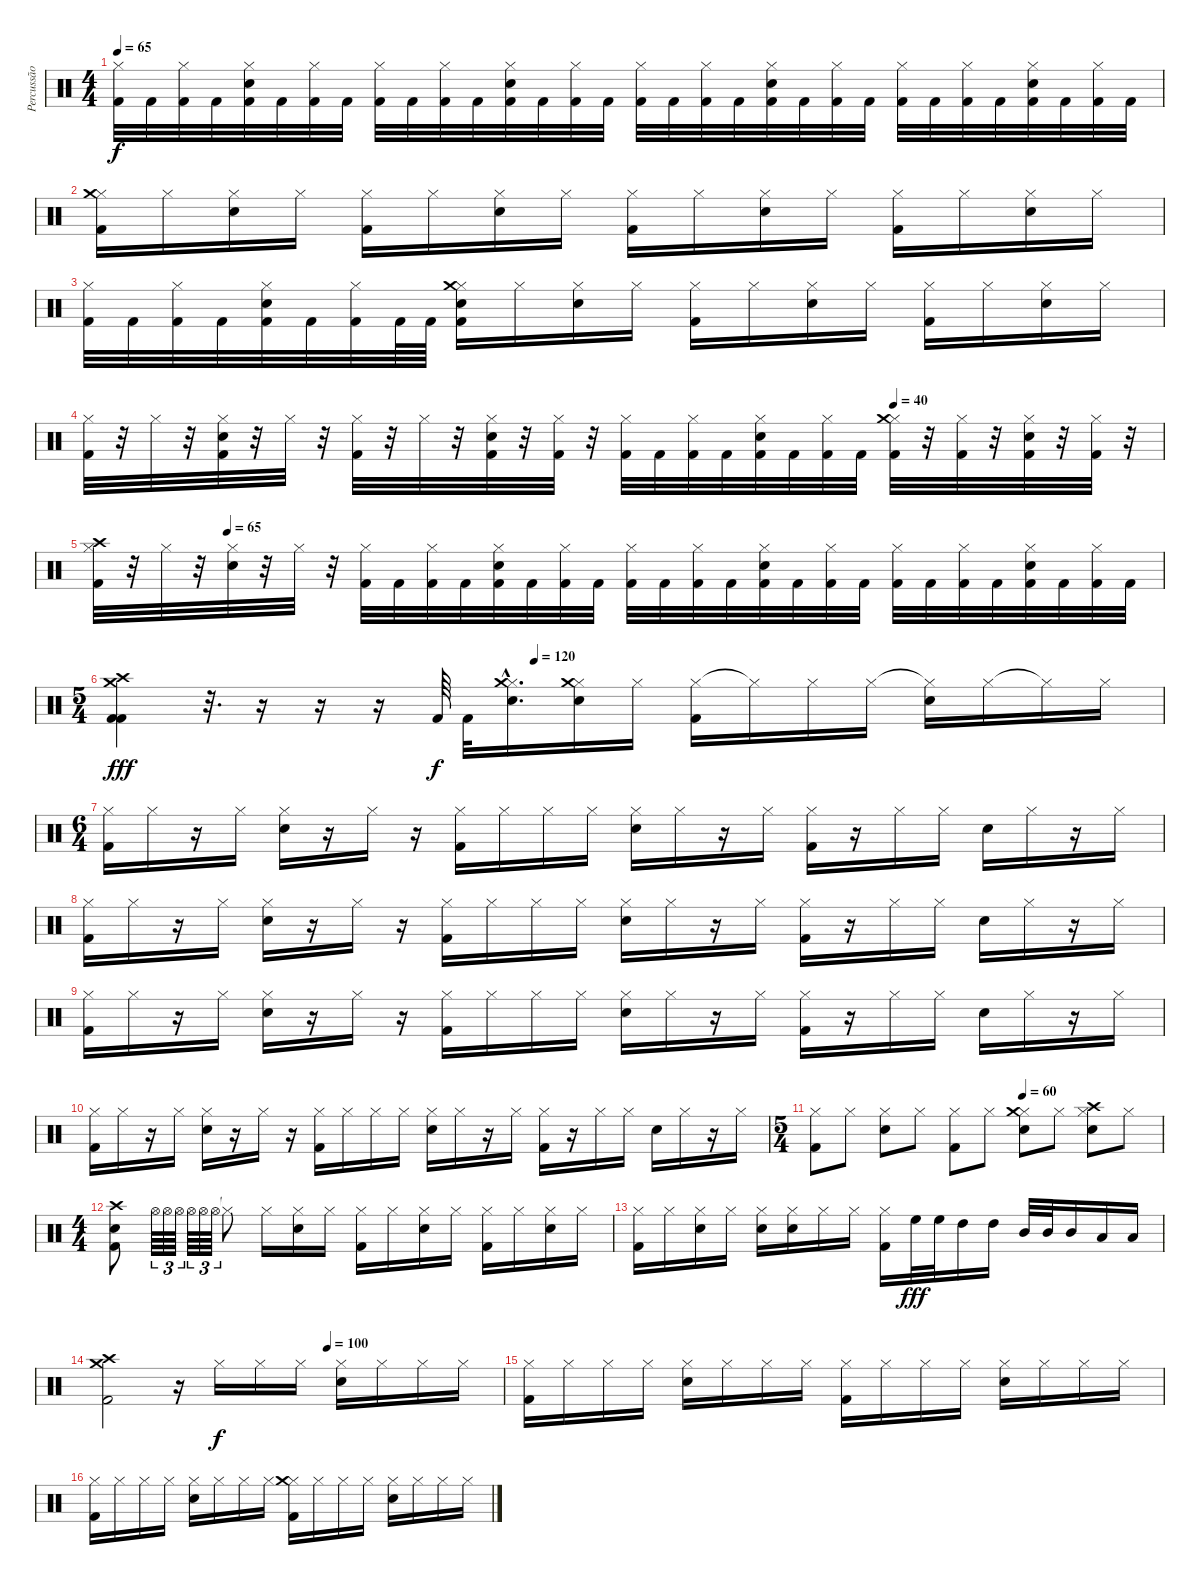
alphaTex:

\track ("Percussão" "Percussão") {instrument percussion}
\staff {score}
\articulation defaults
\ts (4 4)
\tempo 65
\clef neutral
\ks c
("Hi-Hat (closed)" "Kick (hit) 2").32{dy f} "Kick (hit) 2".32 ("Hi-Hat (closed)" "Kick (hit) 2").32 "Kick (hit) 2".32 ("Hi-Hat (closed)" "Kick (hit) 2" "Snare (hit) 2").32 "Kick (hit) 2".32 ("Hi-Hat (closed)" "Kick (hit) 2").32 "Kick (hit) 2".32 ("Hi-Hat (closed)" "Kick (hit) 2").32 "Kick (hit) 2".32 ("Hi-Hat (closed)" "Kick (hit) 2").32 "Kick (hit) 2".32 ("Hi-Hat (closed)" "Kick (hit) 2" "Snare (hit) 2").32 "Kick (hit) 2".32 ("Hi-Hat (closed)" "Kick (hit) 2").32 "Kick (hit) 2".32 ("Hi-Hat (closed)" "Kick (hit) 2").32 "Kick (hit) 2".32 ("Hi-Hat (closed)" "Kick (hit) 2").32 "Kick (hit) 2".32 ("Hi-Hat (closed)" "Kick (hit) 2" "Snare (hit) 2").32 "Kick (hit) 2".32 ("Hi-Hat (closed)" "Kick (hit) 2").32 "Kick (hit) 2".32 ("Hi-Hat (closed)" "Kick (hit) 2").32 "Kick (hit) 2".32 ("Hi-Hat (closed)" "Kick (hit) 2").32 "Kick (hit) 2".32 ("Hi-Hat (closed)" "Kick (hit) 2" "Snare (hit) 2").32 "Kick (hit) 2".32 ("Hi-Hat (closed)" "Kick (hit) 2").32 "Kick (hit) 2".32 |
("Hi-Hat (closed)" "Kick (hit) 2" "Crash medium (hit)").16 "Hi-Hat (closed)".16 ("Hi-Hat (closed)" "Snare (hit) 2").16 "Hi-Hat (closed)".16 ("Hi-Hat (closed)" "Kick (hit) 2").16 "Hi-Hat (closed)".16 ("Hi-Hat (closed)" "Snare (hit) 2").16 "Hi-Hat (closed)".16 ("Hi-Hat (closed)" "Kick (hit) 2").16 "Hi-Hat (closed)".16 ("Hi-Hat (closed)" "Snare (hit) 2").16 "Hi-Hat (closed)".16 ("Hi-Hat (closed)" "Kick (hit) 2").16 "Hi-Hat (closed)".16 ("Hi-Hat (closed)" "Snare (hit) 2").16 "Hi-Hat (closed)".16 |
("Hi-Hat (closed)" "Kick (hit) 2").32 "Kick (hit) 2".32 ("Hi-Hat (closed)" "Kick (hit) 2").32 "Kick (hit) 2".32 ("Hi-Hat (closed)" "Kick (hit) 2" "Snare (hit) 2").32 "Kick (hit) 2".32 ("Hi-Hat (closed)" "Kick (hit) 2").32 "Kick (hit) 2".64 "Kick (hit) 2".64 ("Hi-Hat (closed)" "Kick (hit) 2" "Crash medium (hit)" "Snare (hit) 2").16 "Hi-Hat (closed)".16 ("Hi-Hat (closed)" "Snare (hit) 2").16 "Hi-Hat (closed)".16 ("Hi-Hat (closed)" "Kick (hit) 2").16 "Hi-Hat (closed)".16 ("Hi-Hat (closed)" "Snare (hit) 2").16 "Hi-Hat (closed)".16 ("Hi-Hat (closed)" "Kick (hit) 2").16 "Hi-Hat (closed)".16 ("Hi-Hat (closed)" "Snare (hit) 2").16 "Hi-Hat (closed)".16 |
\tempo (40 0.75)
("Hi-Hat (closed)" "Kick (hit) 2").32 r.32 "Hi-Hat (closed)".32 r.32 ("Hi-Hat (closed)" "Kick (hit) 2" "Snare (hit) 2").32 r.32 "Hi-Hat (closed)".32 r.32 ("Hi-Hat (closed)" "Kick (hit) 2").32 r.32 "Hi-Hat (closed)".32 r.32 ("Hi-Hat (closed)" "Kick (hit) 2" "Snare (hit) 2").32 r.32 ("Hi-Hat (closed)" "Kick (hit) 2").32 r.32 ("Hi-Hat (closed)" "Kick (hit) 2").32 "Kick (hit) 2".32 ("Hi-Hat (closed)" "Kick (hit) 2").32 "Kick (hit) 2".32 ("Hi-Hat (closed)" "Kick (hit) 2" "Snare (hit) 2").32 "Kick (hit) 2".32 ("Hi-Hat (closed)" "Kick (hit) 2").32 "Kick (hit) 2".32 ("Hi-Hat (closed)" "Kick (hit) 2" "Crash medium (hit)").32 r.32 ("Hi-Hat (closed)" "Kick (hit) 2").32 r.32 ("Hi-Hat (closed)" "Kick (hit) 2" "Snare (hit) 2").32 r.32 ("Hi-Hat (closed)" "Kick (hit) 2").32 r.32 |
\tempo (65 0.125)
("Hi-Hat (closed)" "Kick (hit) 2" "Crash high (hit)").32 r.32 "Hi-Hat (closed)".32 r.32 ("Hi-Hat (closed)" "Snare (hit) 2").32 r.32 "Hi-Hat (closed)".32 r.32 ("Hi-Hat (closed)" "Kick (hit) 2").32 "Kick (hit) 2".32 ("Hi-Hat (closed)" "Kick (hit) 2").32 "Kick (hit) 2".32 ("Hi-Hat (closed)" "Kick (hit) 2" "Snare (hit) 2").32 "Kick (hit) 2".32 ("Hi-Hat (closed)" "Kick (hit) 2").32 "Kick (hit) 2".32 ("Hi-Hat (closed)" "Kick (hit) 2").32 "Kick (hit) 2".32 ("Hi-Hat (closed)" "Kick (hit) 2").32 "Kick (hit) 2".32 ("Hi-Hat (closed)" "Kick (hit) 2" "Snare (hit) 2").32 "Kick (hit) 2".32 ("Hi-Hat (closed)" "Kick (hit) 2").32 "Kick (hit) 2".32 ("Hi-Hat (closed)" "Kick (hit) 2").32 "Kick (hit) 2".32 ("Hi-Hat (closed)" "Kick (hit) 2").32 "Kick (hit) 2".32 ("Hi-Hat (closed)" "Kick (hit) 2" "Snare (hit) 2").32 "Kick (hit) 2".32 ("Hi-Hat (closed)" "Kick (hit) 2").32 "Kick (hit) 2".32 |
\ts (5 4)
\tempo (120 0.4)
("Crash high (hit)" "Crash medium (hit)" "Kick (hit) 2" "Kick (hit) 2").4{dy fff} r.32{d} r.16 r.16 r.16 "Kick (hit) 2".64{dy f} "Kick (hit) 2".32 ("Hi-Hat (closed)"{hac} "Snare (hit) 2"{hac} "Crash medium (hit)"{hac}).16{d} ("Hi-Hat (closed)" "Snare (hit) 2" "Crash medium (hit)").16 "Hi-Hat (closed)".16 ("Hi-Hat (closed)" "Kick (hit) 2").16 "Hi-Hat (closed)"{t}.16 "Hi-Hat (closed)".16 "Hi-Hat (closed)".16 ("Hi-Hat (closed)"{t} "Snare (hit) 2").16 "Hi-Hat (closed)".16 "Hi-Hat (closed)"{t}.16 "Hi-Hat (closed)".16 |
\ts (6 4)
("Hi-Hat (closed)" "Kick (hit) 2").16 "Hi-Hat (closed)".16 r.16 "Hi-Hat (closed)".16 ("Hi-Hat (closed)" "Snare (hit) 2").16 r.16 "Hi-Hat (closed)".16 r.16 ("Hi-Hat (closed)" "Kick (hit) 2").16 "Hi-Hat (closed)".16 "Hi-Hat (closed)".16 "Hi-Hat (closed)".16 ("Hi-Hat (closed)" "Snare (hit) 2").16 "Hi-Hat (closed)".16 r.16 "Hi-Hat (closed)".16 ("Hi-Hat (closed)" "Kick (hit) 2").16 r.16 "Hi-Hat (closed)".16 "Hi-Hat (closed)".16 "Snare (hit) 2".16 "Hi-Hat (closed)".16 r.16 "Hi-Hat (closed)".16 |
("Hi-Hat (closed)" "Kick (hit) 2").16 "Hi-Hat (closed)".16 r.16 "Hi-Hat (closed)".16 ("Hi-Hat (closed)" "Snare (hit) 2").16 r.16 "Hi-Hat (closed)".16 r.16 ("Hi-Hat (closed)" "Kick (hit) 2").16 "Hi-Hat (closed)".16 "Hi-Hat (closed)".16 "Hi-Hat (closed)".16 ("Hi-Hat (closed)" "Snare (hit) 2").16 "Hi-Hat (closed)".16 r.16 "Hi-Hat (closed)".16 ("Hi-Hat (closed)" "Kick (hit) 2").16 r.16 "Hi-Hat (closed)".16 "Hi-Hat (closed)".16 "Snare (hit) 2".16 "Hi-Hat (closed)".16 r.16 "Hi-Hat (closed)".16 |
("Hi-Hat (closed)" "Kick (hit) 2").16 "Hi-Hat (closed)".16 r.16 "Hi-Hat (closed)".16 ("Hi-Hat (closed)" "Snare (hit) 2").16 r.16 "Hi-Hat (closed)".16 r.16 ("Hi-Hat (closed)" "Kick (hit) 2").16 "Hi-Hat (closed)".16 "Hi-Hat (closed)".16 "Hi-Hat (closed)".16 ("Hi-Hat (closed)" "Snare (hit) 2").16 "Hi-Hat (closed)".16 r.16 "Hi-Hat (closed)".16 ("Hi-Hat (closed)" "Kick (hit) 2").16 r.16 "Hi-Hat (closed)".16 "Hi-Hat (closed)".16 "Snare (hit) 2".16 "Hi-Hat (closed)".16 r.16 "Hi-Hat (closed)".16 |
("Hi-Hat (closed)" "Kick (hit) 2").16 "Hi-Hat (closed)".16 r.16 "Hi-Hat (closed)".16 ("Hi-Hat (closed)" "Snare (hit) 2").16 r.16 "Hi-Hat (closed)".16 r.16 ("Hi-Hat (closed)" "Kick (hit) 2").16 "Hi-Hat (closed)".16 "Hi-Hat (closed)".16 "Hi-Hat (closed)".16 ("Hi-Hat (closed)" "Snare (hit) 2").16 "Hi-Hat (closed)".16 r.16 "Hi-Hat (closed)".16 ("Hi-Hat (closed)" "Kick (hit) 2").16 r.16 "Hi-Hat (closed)".16 "Hi-Hat (closed)".16 "Snare (hit) 2".16 "Hi-Hat (closed)".16 r.16 "Hi-Hat (closed)".16 |
\ts (5 4)
\tempo (60 0.6)
("Hi-Hat (closed)" "Kick (hit) 2").8 "Hi-Hat (closed)".8 ("Hi-Hat (closed)" "Snare (hit) 2").8 "Hi-Hat (closed)".8 ("Hi-Hat (closed)" "Kick (hit) 2").8 "Hi-Hat (closed)".8 ("Hi-Hat (closed)" "Snare (hit) 2" "Crash medium (hit)").8 "Hi-Hat (closed)".8 ("Hi-Hat (closed)" "Snare (hit) 2" "Crash high (hit)").8 "Hi-Hat (closed)".8 |
\ts (4 4)
("Crash high (hit)" "Snare (hit) 2" "Kick (hit) 2").8 "Hi-Hat (open)".64{tu (3 2)} "Hi-Hat (open)".64{tu (3 2)} "Hi-Hat (open)".64{tu (3 2)} "Hi-Hat (open)".64{tu (3 2)} "Hi-Hat (open)".64{tu (3 2)} "Hi-Hat (open)".64{tu (3 2)} "Hi-Hat (closed)"{t}.8 "Hi-Hat (closed)".16 ("Hi-Hat (closed)" "Snare (hit) 2").16 "Hi-Hat (closed)".16 ("Hi-Hat (closed)" "Kick (hit) 2").16 "Hi-Hat (closed)".16 ("Hi-Hat (closed)" "Snare (hit) 2").16 "Hi-Hat (closed)".16 ("Hi-Hat (closed)" "Kick (hit) 2").16 "Hi-Hat (closed)".16 ("Hi-Hat (closed)" "Snare (hit) 2").16 "Hi-Hat (closed)".16 |
("Hi-Hat (closed)" "Kick (hit) 2").16 "Hi-Hat (closed)".16 ("Hi-Hat (closed)" "Snare (hit) 2").16 "Hi-Hat (closed)".16 ("Hi-Hat (closed)" "Snare (hit) 2").16 ("Hi-Hat (closed)" "Snare (hit) 2").16 "Hi-Hat (closed)".16 "Hi-Hat (closed)".16 ("Hi-Hat (closed)" "Kick (hit) 2").16 "High Floor Tom (hit)".32{dy fff} "High Floor Tom (hit)".32 "High Tom (hit)".16 "High Tom (hit)".16 "Mid Tom (hit)".32 "Mid Tom (hit)".32 "Mid Tom (hit)".16 "Low Tom (hit)".16 "Low Tom (hit)".16 |
\tempo (100 0.5625)
("Crash medium (hit)" "Kick (hit) 2" "Crash high (hit)").2 r.16 "Hi-Hat (closed)".16{dy f} "Hi-Hat (closed)".16 "Hi-Hat (closed)".16 ("Hi-Hat (closed)" "Snare (hit) 2").16 "Hi-Hat (closed)".16 "Hi-Hat (closed)".16 "Hi-Hat (closed)".16 |
("Hi-Hat (closed)" "Kick (hit) 2").16 "Hi-Hat (closed)".16 "Hi-Hat (closed)".16 "Hi-Hat (closed)".16 ("Hi-Hat (closed)" "Snare (hit) 2").16 "Hi-Hat (closed)".16 "Hi-Hat (closed)".16 "Hi-Hat (closed)".16 ("Hi-Hat (closed)" "Kick (hit) 2").16 "Hi-Hat (closed)".16 "Hi-Hat (closed)".16 "Hi-Hat (closed)".16 ("Hi-Hat (closed)" "Snare (hit) 2").16 "Hi-Hat (closed)".16 "Hi-Hat (closed)".16 "Hi-Hat (closed)".16 |
("Hi-Hat (closed)" "Kick (hit) 2").16 "Hi-Hat (closed)".16 "Hi-Hat (closed)".16 "Hi-Hat (closed)".16 ("Hi-Hat (closed)" "Snare (hit) 2").16 "Hi-Hat (closed)".16 "Hi-Hat (closed)".16 "Hi-Hat (closed)".16 ("Hi-Hat (closed)" "Kick (hit) 2" "Crash medium (hit)").16 "Hi-Hat (closed)".16 "Hi-Hat (closed)".16 "Hi-Hat (closed)".16 ("Hi-Hat (closed)" "Snare (hit) 2").16 "Hi-Hat (closed)".16 "Hi-Hat (closed)".16 "Hi-Hat (closed)".16
